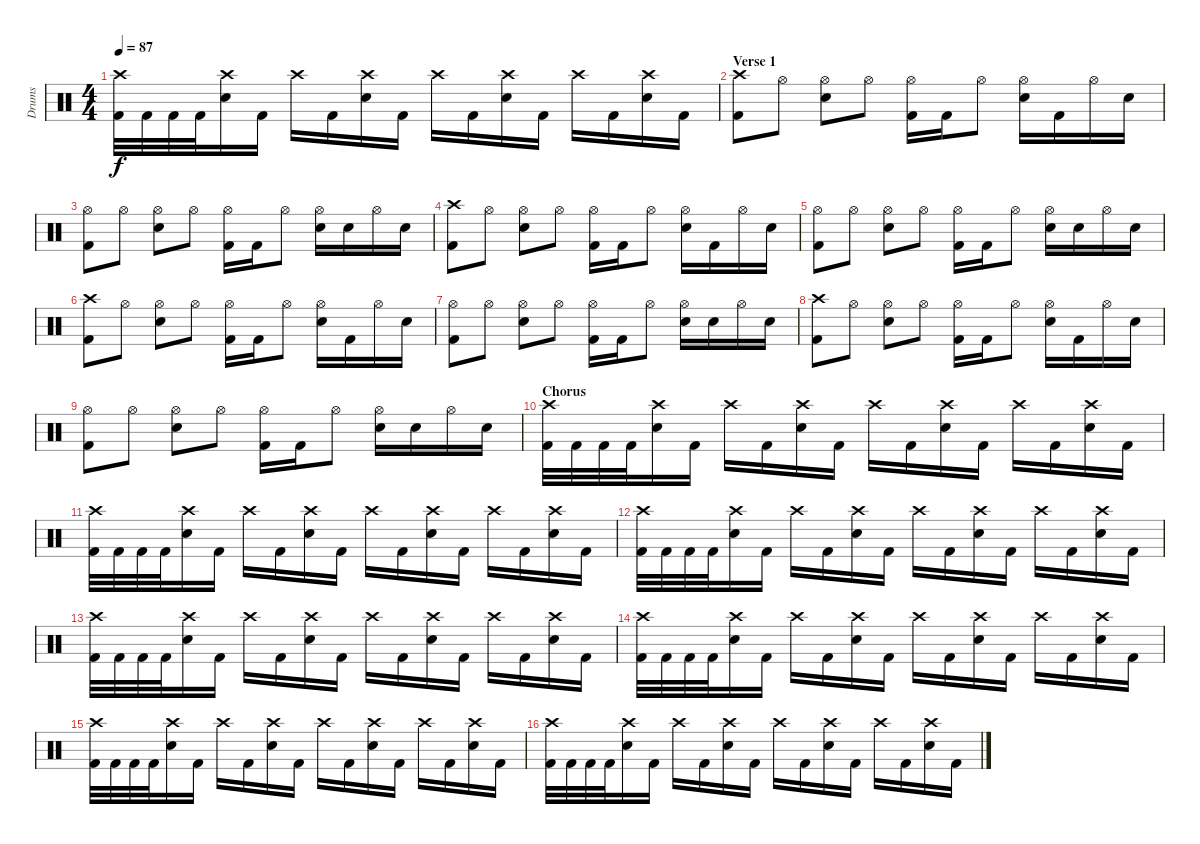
\track ("Drums" "Drums") {instrument percussion}
\staff {score}
\articulation defaults
\ts (4 4)
\tempo 87
\clef neutral
\ks c
("Crash high (hit)" "Kick (hit) 2").32{dy f} "Kick (hit) 2".32 "Kick (hit) 2".32 "Kick (hit) 2".32 ("Crash high (hit)" "Electric Snare (hit)").16 "Kick (hit) 2".16 "Crash high (hit)".16 "Kick (hit) 2".16 ("Crash high (hit)" "Electric Snare (hit)").16 "Kick (hit) 2".16 "Crash high (hit)".16 "Kick (hit) 2".16 ("Crash high (hit)" "Electric Snare (hit)").16 "Kick (hit) 2".16 "Crash high (hit)".16 "Kick (hit) 2".16 ("Crash high (hit)" "Electric Snare (hit)").16 "Kick (hit) 2".16 |
\section ("" "Verse 1")
("Crash high (hit)" "Kick (hit) 2").8 "Hi-Hat (open)".8 ("Hi-Hat (open)" "Electric Snare (hit)").8 "Hi-Hat (open)".8 ("Hi-Hat (open)" "Kick (hit) 2").16 "Kick (hit) 2".16 "Hi-Hat (open)".8 ("Hi-Hat (open)" "Electric Snare (hit)").16 "Kick (hit) 2".16 "Hi-Hat (open)".16 "Electric Snare (hit)".16 |
("Hi-Hat (open)" "Kick (hit) 2").8 "Hi-Hat (open)".8 ("Hi-Hat (open)" "Electric Snare (hit)").8 "Hi-Hat (open)".8 ("Hi-Hat (open)" "Kick (hit) 2").16 "Kick (hit) 2".16 "Hi-Hat (open)".8 ("Hi-Hat (open)" "Electric Snare (hit)").16 "Electric Snare (hit)".16 "Hi-Hat (open)".16 "Electric Snare (hit)".16 |
("Crash high (hit)" "Kick (hit) 2").8 "Hi-Hat (open)".8 ("Hi-Hat (open)" "Electric Snare (hit)").8 "Hi-Hat (open)".8 ("Hi-Hat (open)" "Kick (hit) 2").16 "Kick (hit) 2".16 "Hi-Hat (open)".8 ("Hi-Hat (open)" "Electric Snare (hit)").16 "Kick (hit) 2".16 "Hi-Hat (open)".16 "Electric Snare (hit)".16 |
("Hi-Hat (open)" "Kick (hit) 2").8 "Hi-Hat (open)".8 ("Hi-Hat (open)" "Electric Snare (hit)").8 "Hi-Hat (open)".8 ("Hi-Hat (open)" "Kick (hit) 2").16 "Kick (hit) 2".16 "Hi-Hat (open)".8 ("Hi-Hat (open)" "Electric Snare (hit)").16 "Electric Snare (hit)".16 "Hi-Hat (open)".16 "Electric Snare (hit)".16 |
("Crash high (hit)" "Kick (hit) 2").8 "Hi-Hat (open)".8 ("Hi-Hat (open)" "Electric Snare (hit)").8 "Hi-Hat (open)".8 ("Hi-Hat (open)" "Kick (hit) 2").16 "Kick (hit) 2".16 "Hi-Hat (open)".8 ("Hi-Hat (open)" "Electric Snare (hit)").16 "Kick (hit) 2".16 "Hi-Hat (open)".16 "Electric Snare (hit)".16 |
("Hi-Hat (open)" "Kick (hit) 2").8 "Hi-Hat (open)".8 ("Hi-Hat (open)" "Electric Snare (hit)").8 "Hi-Hat (open)".8 ("Hi-Hat (open)" "Kick (hit) 2").16 "Kick (hit) 2".16 "Hi-Hat (open)".8 ("Hi-Hat (open)" "Electric Snare (hit)").16 "Electric Snare (hit)".16 "Hi-Hat (open)".16 "Electric Snare (hit)".16 |
("Crash high (hit)" "Kick (hit) 2").8 "Hi-Hat (open)".8 ("Hi-Hat (open)" "Electric Snare (hit)").8 "Hi-Hat (open)".8 ("Hi-Hat (open)" "Kick (hit) 2").16 "Kick (hit) 2".16 "Hi-Hat (open)".8 ("Hi-Hat (open)" "Electric Snare (hit)").16 "Kick (hit) 2".16 "Hi-Hat (open)".16 "Electric Snare (hit)".16 |
("Hi-Hat (open)" "Kick (hit) 2").8 "Hi-Hat (open)".8 ("Hi-Hat (open)" "Electric Snare (hit)").8 "Hi-Hat (open)".8 ("Hi-Hat (open)" "Kick (hit) 2").16 "Kick (hit) 2".16 "Hi-Hat (open)".8 ("Hi-Hat (open)" "Electric Snare (hit)").16 "Electric Snare (hit)".16 "Hi-Hat (open)".16 "Electric Snare (hit)".16 |
\section ("" "Chorus")
("Crash high (hit)" "Kick (hit) 2").32 "Kick (hit) 2".32 "Kick (hit) 2".32 "Kick (hit) 2".32 ("Crash high (hit)" "Electric Snare (hit)").16 "Kick (hit) 2".16 "Crash high (hit)".16 "Kick (hit) 2".16 ("Crash high (hit)" "Electric Snare (hit)").16 "Kick (hit) 2".16 "Crash high (hit)".16 "Kick (hit) 2".16 ("Crash high (hit)" "Electric Snare (hit)").16 "Kick (hit) 2".16 "Crash high (hit)".16 "Kick (hit) 2".16 ("Crash high (hit)" "Electric Snare (hit)").16 "Kick (hit) 2".16 |
("Crash high (hit)" "Kick (hit) 2").32 "Kick (hit) 2".32 "Kick (hit) 2".32 "Kick (hit) 2".32 ("Crash high (hit)" "Electric Snare (hit)").16 "Kick (hit) 2".16 "Crash high (hit)".16 "Kick (hit) 2".16 ("Crash high (hit)" "Electric Snare (hit)").16 "Kick (hit) 2".16 "Crash high (hit)".16 "Kick (hit) 2".16 ("Crash high (hit)" "Electric Snare (hit)").16 "Kick (hit) 2".16 "Crash high (hit)".16 "Kick (hit) 2".16 ("Crash high (hit)" "Electric Snare (hit)").16 "Kick (hit) 2".16 |
("Crash high (hit)" "Kick (hit) 2").32 "Kick (hit) 2".32 "Kick (hit) 2".32 "Kick (hit) 2".32 ("Crash high (hit)" "Electric Snare (hit)").16 "Kick (hit) 2".16 "Crash high (hit)".16 "Kick (hit) 2".16 ("Crash high (hit)" "Electric Snare (hit)").16 "Kick (hit) 2".16 "Crash high (hit)".16 "Kick (hit) 2".16 ("Crash high (hit)" "Electric Snare (hit)").16 "Kick (hit) 2".16 "Crash high (hit)".16 "Kick (hit) 2".16 ("Crash high (hit)" "Electric Snare (hit)").16 "Kick (hit) 2".16 |
("Crash high (hit)" "Kick (hit) 2").32 "Kick (hit) 2".32 "Kick (hit) 2".32 "Kick (hit) 2".32 ("Crash high (hit)" "Electric Snare (hit)").16 "Kick (hit) 2".16 "Crash high (hit)".16 "Kick (hit) 2".16 ("Crash high (hit)" "Electric Snare (hit)").16 "Kick (hit) 2".16 "Crash high (hit)".16 "Kick (hit) 2".16 ("Crash high (hit)" "Electric Snare (hit)").16 "Kick (hit) 2".16 "Crash high (hit)".16 "Kick (hit) 2".16 ("Crash high (hit)" "Electric Snare (hit)").16 "Kick (hit) 2".16 |
("Crash high (hit)" "Kick (hit) 2").32 "Kick (hit) 2".32 "Kick (hit) 2".32 "Kick (hit) 2".32 ("Crash high (hit)" "Electric Snare (hit)").16 "Kick (hit) 2".16 "Crash high (hit)".16 "Kick (hit) 2".16 ("Crash high (hit)" "Electric Snare (hit)").16 "Kick (hit) 2".16 "Crash high (hit)".16 "Kick (hit) 2".16 ("Crash high (hit)" "Electric Snare (hit)").16 "Kick (hit) 2".16 "Crash high (hit)".16 "Kick (hit) 2".16 ("Crash high (hit)" "Electric Snare (hit)").16 "Kick (hit) 2".16 |
("Crash high (hit)" "Kick (hit) 2").32 "Kick (hit) 2".32 "Kick (hit) 2".32 "Kick (hit) 2".32 ("Crash high (hit)" "Electric Snare (hit)").16 "Kick (hit) 2".16 "Crash high (hit)".16 "Kick (hit) 2".16 ("Crash high (hit)" "Electric Snare (hit)").16 "Kick (hit) 2".16 "Crash high (hit)".16 "Kick (hit) 2".16 ("Crash high (hit)" "Electric Snare (hit)").16 "Kick (hit) 2".16 "Crash high (hit)".16 "Kick (hit) 2".16 ("Crash high (hit)" "Electric Snare (hit)").16 "Kick (hit) 2".16 |
("Crash high (hit)" "Kick (hit) 2").32 "Kick (hit) 2".32 "Kick (hit) 2".32 "Kick (hit) 2".32 ("Crash high (hit)" "Electric Snare (hit)").16 "Kick (hit) 2".16 "Crash high (hit)".16 "Kick (hit) 2".16 ("Crash high (hit)" "Electric Snare (hit)").16 "Kick (hit) 2".16 "Crash high (hit)".16 "Kick (hit) 2".16 ("Crash high (hit)" "Electric Snare (hit)").16 "Kick (hit) 2".16 "Crash high (hit)".16 "Kick (hit) 2".16 ("Crash high (hit)" "Electric Snare (hit)").16 "Kick (hit) 2".16
